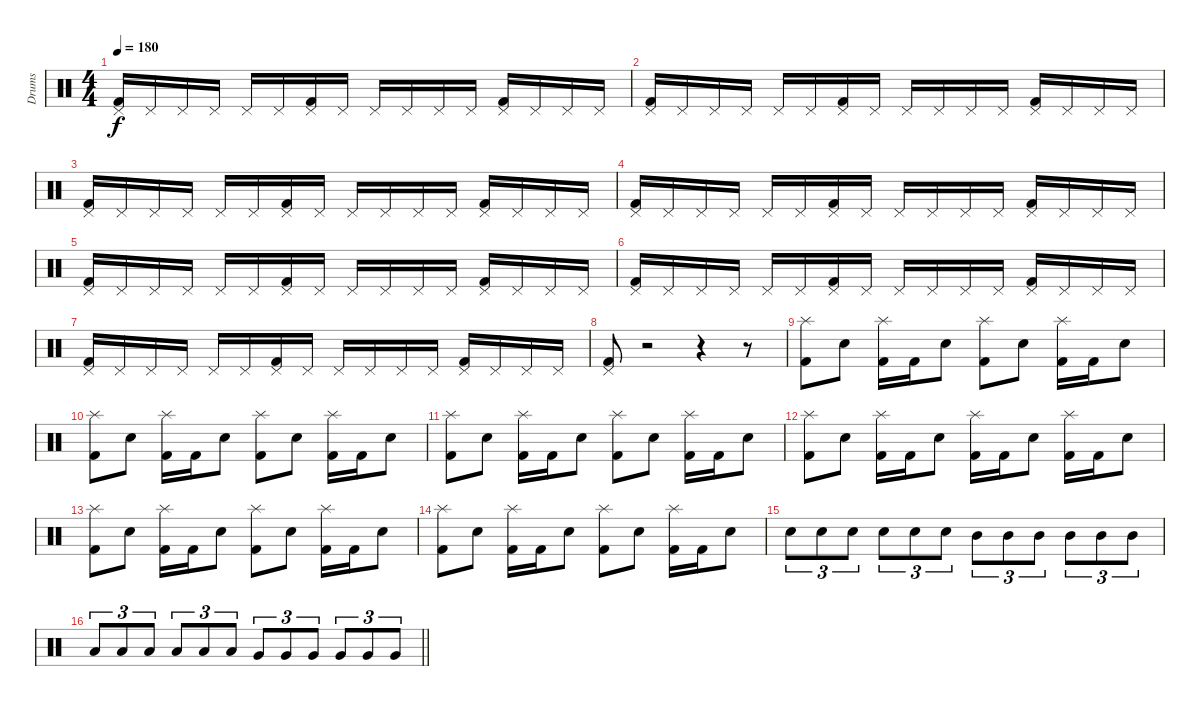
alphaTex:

\track ("Drums" "Drums") {instrument percussion}
\staff {score}
\articulation defaults
\ts (4 4)
\tempo 180
\clef neutral
\ks c
("Pedal Hi-Hat (hit)" "Kick (hit) 2").16{dy f} "Pedal Hi-Hat (hit)".16 "Pedal Hi-Hat (hit)".16 "Pedal Hi-Hat (hit)".16 "Pedal Hi-Hat (hit)".16 "Pedal Hi-Hat (hit)".16 ("Pedal Hi-Hat (hit)" "Kick (hit) 2").16 "Pedal Hi-Hat (hit)".16 "Pedal Hi-Hat (hit)".16 "Pedal Hi-Hat (hit)".16 "Pedal Hi-Hat (hit)".16 "Pedal Hi-Hat (hit)".16 ("Pedal Hi-Hat (hit)" "Kick (hit) 2").16 "Pedal Hi-Hat (hit)".16 "Pedal Hi-Hat (hit)".16 "Pedal Hi-Hat (hit)".16 |
("Pedal Hi-Hat (hit)" "Kick (hit) 2").16 "Pedal Hi-Hat (hit)".16 "Pedal Hi-Hat (hit)".16 "Pedal Hi-Hat (hit)".16 "Pedal Hi-Hat (hit)".16 "Pedal Hi-Hat (hit)".16 ("Pedal Hi-Hat (hit)" "Kick (hit) 2").16 "Pedal Hi-Hat (hit)".16 "Pedal Hi-Hat (hit)".16 "Pedal Hi-Hat (hit)".16 "Pedal Hi-Hat (hit)".16 "Pedal Hi-Hat (hit)".16 ("Pedal Hi-Hat (hit)" "Kick (hit) 2").16 "Pedal Hi-Hat (hit)".16 "Pedal Hi-Hat (hit)".16 "Pedal Hi-Hat (hit)".16 |
("Pedal Hi-Hat (hit)" "Kick (hit) 2").16 "Pedal Hi-Hat (hit)".16 "Pedal Hi-Hat (hit)".16 "Pedal Hi-Hat (hit)".16 "Pedal Hi-Hat (hit)".16 "Pedal Hi-Hat (hit)".16 ("Pedal Hi-Hat (hit)" "Kick (hit) 2").16 "Pedal Hi-Hat (hit)".16 "Pedal Hi-Hat (hit)".16 "Pedal Hi-Hat (hit)".16 "Pedal Hi-Hat (hit)".16 "Pedal Hi-Hat (hit)".16 ("Pedal Hi-Hat (hit)" "Kick (hit) 2").16 "Pedal Hi-Hat (hit)".16 "Pedal Hi-Hat (hit)".16 "Pedal Hi-Hat (hit)".16 |
("Pedal Hi-Hat (hit)" "Kick (hit) 2").16 "Pedal Hi-Hat (hit)".16 "Pedal Hi-Hat (hit)".16 "Pedal Hi-Hat (hit)".16 "Pedal Hi-Hat (hit)".16 "Pedal Hi-Hat (hit)".16 ("Pedal Hi-Hat (hit)" "Kick (hit) 2").16 "Pedal Hi-Hat (hit)".16 "Pedal Hi-Hat (hit)".16 "Pedal Hi-Hat (hit)".16 "Pedal Hi-Hat (hit)".16 "Pedal Hi-Hat (hit)".16 ("Pedal Hi-Hat (hit)" "Kick (hit) 2").16 "Pedal Hi-Hat (hit)".16 "Pedal Hi-Hat (hit)".16 "Pedal Hi-Hat (hit)".16 |
("Pedal Hi-Hat (hit)" "Kick (hit) 2").16 "Pedal Hi-Hat (hit)".16 "Pedal Hi-Hat (hit)".16 "Pedal Hi-Hat (hit)".16 "Pedal Hi-Hat (hit)".16 "Pedal Hi-Hat (hit)".16 ("Pedal Hi-Hat (hit)" "Kick (hit) 2").16 "Pedal Hi-Hat (hit)".16 "Pedal Hi-Hat (hit)".16 "Pedal Hi-Hat (hit)".16 "Pedal Hi-Hat (hit)".16 "Pedal Hi-Hat (hit)".16 ("Pedal Hi-Hat (hit)" "Kick (hit) 2").16 "Pedal Hi-Hat (hit)".16 "Pedal Hi-Hat (hit)".16 "Pedal Hi-Hat (hit)".16 |
("Pedal Hi-Hat (hit)" "Kick (hit) 2").16 "Pedal Hi-Hat (hit)".16 "Pedal Hi-Hat (hit)".16 "Pedal Hi-Hat (hit)".16 "Pedal Hi-Hat (hit)".16 "Pedal Hi-Hat (hit)".16 ("Pedal Hi-Hat (hit)" "Kick (hit) 2").16 "Pedal Hi-Hat (hit)".16 "Pedal Hi-Hat (hit)".16 "Pedal Hi-Hat (hit)".16 "Pedal Hi-Hat (hit)".16 "Pedal Hi-Hat (hit)".16 ("Pedal Hi-Hat (hit)" "Kick (hit) 2").16 "Pedal Hi-Hat (hit)".16 "Pedal Hi-Hat (hit)".16 "Pedal Hi-Hat (hit)".16 |
("Pedal Hi-Hat (hit)" "Kick (hit) 2").16 "Pedal Hi-Hat (hit)".16 "Pedal Hi-Hat (hit)".16 "Pedal Hi-Hat (hit)".16 "Pedal Hi-Hat (hit)".16 "Pedal Hi-Hat (hit)".16 ("Pedal Hi-Hat (hit)" "Kick (hit) 2").16 "Pedal Hi-Hat (hit)".16 "Pedal Hi-Hat (hit)".16 "Pedal Hi-Hat (hit)".16 "Pedal Hi-Hat (hit)".16 "Pedal Hi-Hat (hit)".16 ("Pedal Hi-Hat (hit)" "Kick (hit) 2").16 "Pedal Hi-Hat (hit)".16 "Pedal Hi-Hat (hit)".16 "Pedal Hi-Hat (hit)".16 |
("Pedal Hi-Hat (hit)" "Kick (hit) 2").8 r.2 r.4 r.8 |
("Splash (hit)" "Kick (hit) 2").8 "Snare (hit) 2".8 ("Splash (hit)" "Kick (hit) 2").16 "Kick (hit) 2".16 "Snare (hit) 2".8 ("Splash (hit)" "Kick (hit) 2").8 "Snare (hit) 2".8 ("Splash (hit)" "Kick (hit) 2").16 "Kick (hit) 2".16 "Snare (hit) 2".8 |
("Splash (hit)" "Kick (hit) 2").8 "Snare (hit) 2".8 ("Splash (hit)" "Kick (hit) 2").16 "Kick (hit) 2".16 "Snare (hit) 2".8 ("Splash (hit)" "Kick (hit) 2").8 "Snare (hit) 2".8 ("Splash (hit)" "Kick (hit) 2").16 "Kick (hit) 2".16 "Snare (hit) 2".8 |
("Splash (hit)" "Kick (hit) 2").8 "Snare (hit) 2".8 ("Splash (hit)" "Kick (hit) 2").16 "Kick (hit) 2".16 "Snare (hit) 2".8 ("Splash (hit)" "Kick (hit) 2").8 "Snare (hit) 2".8 ("Splash (hit)" "Kick (hit) 2").16 "Kick (hit) 2".16 "Snare (hit) 2".8 |
("Splash (hit)" "Kick (hit) 2").8 "Snare (hit) 2".8 ("Splash (hit)" "Kick (hit) 2").16 "Kick (hit) 2".16 "Snare (hit) 2".8 ("Splash (hit)" "Kick (hit) 2").16 "Kick (hit) 2".16 "Snare (hit) 2".8 ("Splash (hit)" "Kick (hit) 2").16 "Kick (hit) 2".16 "Snare (hit) 2".8 |
("Splash (hit)" "Kick (hit) 2").8 "Snare (hit) 2".8 ("Splash (hit)" "Kick (hit) 2").16 "Kick (hit) 2".16 "Snare (hit) 2".8 ("Splash (hit)" "Kick (hit) 2").8 "Snare (hit) 2".8 ("Splash (hit)" "Kick (hit) 2").16 "Kick (hit) 2".16 "Snare (hit) 2".8 |
("Splash (hit)" "Kick (hit) 2").8 "Snare (hit) 2".8 ("Splash (hit)" "Kick (hit) 2").16 "Kick (hit) 2".16 "Snare (hit) 2".8 ("Splash (hit)" "Kick (hit) 2").8 "Snare (hit) 2".8 ("Splash (hit)" "Kick (hit) 2").16 "Kick (hit) 2".16 "Snare (hit) 2".8 |
"Snare (hit) 2".8{tu (3 2)} "Snare (hit) 2".8{tu (3 2)} "Snare (hit) 2".8{tu (3 2)} "Snare (hit) 2".8{tu (3 2)} "Snare (hit) 2".8{tu (3 2)} "Snare (hit) 2".8{tu (3 2)} "Mid Tom (hit)".8{tu (3 2)} "Mid Tom (hit)".8{tu (3 2)} "Mid Tom (hit)".8{tu (3 2)} "Mid Tom (hit)".8{tu (3 2)} "Mid Tom (hit)".8{tu (3 2)} "Mid Tom (hit)".8{tu (3 2)} |
\barLineRight lightlight "Low Tom (hit)".8{tu (3 2)} "Low Tom (hit)".8{tu (3 2)} "Low Tom (hit)".8{tu (3 2)} "Low Tom (hit)".8{tu (3 2)} "Low Tom (hit)".8{tu (3 2)} "Low Tom (hit)".8{tu (3 2)} "Very Low Tom (hit)".8{tu (3 2)} "Very Low Tom (hit)".8{tu (3 2)} "Very Low Tom (hit)".8{tu (3 2)} "Very Low Tom (hit)".8{tu (3 2)} "Very Low Tom (hit)".8{tu (3 2)} "Very Low Tom (hit)".8{tu (3 2)}
